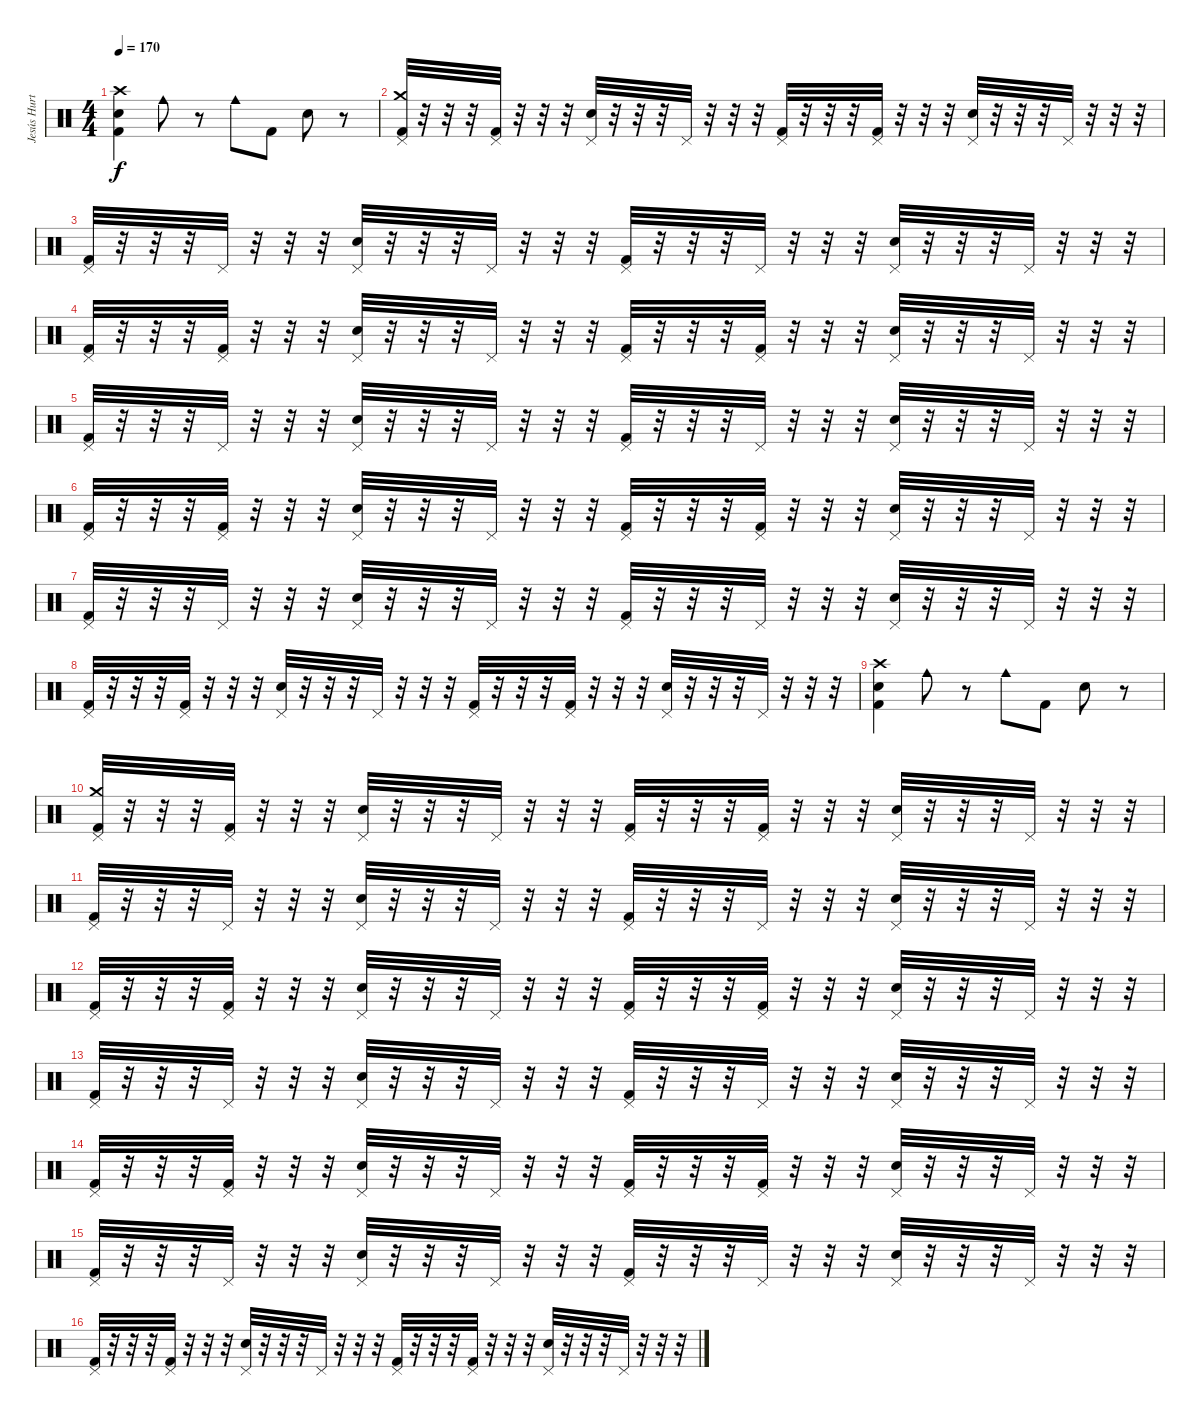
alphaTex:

\track ("Jesús Hurtado \"Jotache\"" "Jesús Hurt") {instrument percussion}
\staff {score}
\articulation defaults
\ts (4 4)
\tempo 170
\clef neutral
\ks c
("Electric Snare (hit)" "Kick (hit) 2" "Crash high (hit)").4{dy f} "Cowbell medium (hit)".8 r.8 "Cowbell medium (hit)".8 "Kick (hit) 2".8 "Electric Snare (hit)".8 r.8 |
("Kick (hit) 2" "Crash medium (hit)" "Pedal Hi-Hat (hit)").32 r.32 r.32 r.32 ("Kick (hit) 2" "Pedal Hi-Hat (hit)").32 r.32 r.32 r.32 ("Electric Snare (hit)" "Pedal Hi-Hat (hit)").32 r.32 r.32 r.32 "Pedal Hi-Hat (hit)".32 r.32 r.32 r.32 ("Kick (hit) 2" "Pedal Hi-Hat (hit)").32 r.32 r.32 r.32 ("Kick (hit) 2" "Pedal Hi-Hat (hit)").32 r.32 r.32 r.32 ("Electric Snare (hit)" "Pedal Hi-Hat (hit)").32 r.32 r.32 r.32 "Pedal Hi-Hat (hit)".32 r.32 r.32 r.32 |
("Kick (hit) 2" "Pedal Hi-Hat (hit)").32 r.32 r.32 r.32 "Pedal Hi-Hat (hit)".32 r.32 r.32 r.32 ("Electric Snare (hit)" "Pedal Hi-Hat (hit)").32 r.32 r.32 r.32 "Pedal Hi-Hat (hit)".32 r.32 r.32 r.32 ("Kick (hit) 2" "Pedal Hi-Hat (hit)").32 r.32 r.32 r.32 "Pedal Hi-Hat (hit)".32 r.32 r.32 r.32 ("Electric Snare (hit)" "Pedal Hi-Hat (hit)").32 r.32 r.32 r.32 "Pedal Hi-Hat (hit)".32 r.32 r.32 r.32 |
("Kick (hit) 2" "Pedal Hi-Hat (hit)").32 r.32 r.32 r.32 ("Kick (hit) 2" "Pedal Hi-Hat (hit)").32 r.32 r.32 r.32 ("Electric Snare (hit)" "Pedal Hi-Hat (hit)").32 r.32 r.32 r.32 "Pedal Hi-Hat (hit)".32 r.32 r.32 r.32 ("Kick (hit) 2" "Pedal Hi-Hat (hit)").32 r.32 r.32 r.32 ("Kick (hit) 2" "Pedal Hi-Hat (hit)").32 r.32 r.32 r.32 ("Electric Snare (hit)" "Pedal Hi-Hat (hit)").32 r.32 r.32 r.32 "Pedal Hi-Hat (hit)".32 r.32 r.32 r.32 |
("Kick (hit) 2" "Pedal Hi-Hat (hit)").32 r.32 r.32 r.32 "Pedal Hi-Hat (hit)".32 r.32 r.32 r.32 ("Electric Snare (hit)" "Pedal Hi-Hat (hit)").32 r.32 r.32 r.32 "Pedal Hi-Hat (hit)".32 r.32 r.32 r.32 ("Kick (hit) 2" "Pedal Hi-Hat (hit)").32 r.32 r.32 r.32 "Pedal Hi-Hat (hit)".32 r.32 r.32 r.32 ("Electric Snare (hit)" "Pedal Hi-Hat (hit)").32 r.32 r.32 r.32 "Pedal Hi-Hat (hit)".32 r.32 r.32 r.32 |
("Kick (hit) 2" "Pedal Hi-Hat (hit)").32 r.32 r.32 r.32 ("Kick (hit) 2" "Pedal Hi-Hat (hit)").32 r.32 r.32 r.32 ("Electric Snare (hit)" "Pedal Hi-Hat (hit)").32 r.32 r.32 r.32 "Pedal Hi-Hat (hit)".32 r.32 r.32 r.32 ("Kick (hit) 2" "Pedal Hi-Hat (hit)").32 r.32 r.32 r.32 ("Kick (hit) 2" "Pedal Hi-Hat (hit)").32 r.32 r.32 r.32 ("Electric Snare (hit)" "Pedal Hi-Hat (hit)").32 r.32 r.32 r.32 "Pedal Hi-Hat (hit)".32 r.32 r.32 r.32 |
("Kick (hit) 2" "Pedal Hi-Hat (hit)").32 r.32 r.32 r.32 "Pedal Hi-Hat (hit)".32 r.32 r.32 r.32 ("Electric Snare (hit)" "Pedal Hi-Hat (hit)").32 r.32 r.32 r.32 "Pedal Hi-Hat (hit)".32 r.32 r.32 r.32 ("Kick (hit) 2" "Pedal Hi-Hat (hit)").32 r.32 r.32 r.32 "Pedal Hi-Hat (hit)".32 r.32 r.32 r.32 ("Electric Snare (hit)" "Pedal Hi-Hat (hit)").32 r.32 r.32 r.32 "Pedal Hi-Hat (hit)".32 r.32 r.32 r.32 |
("Kick (hit) 2" "Pedal Hi-Hat (hit)").32 r.32 r.32 r.32 ("Kick (hit) 2" "Pedal Hi-Hat (hit)").32 r.32 r.32 r.32 ("Electric Snare (hit)" "Pedal Hi-Hat (hit)").32 r.32 r.32 r.32 "Pedal Hi-Hat (hit)".32 r.32 r.32 r.32 ("Kick (hit) 2" "Pedal Hi-Hat (hit)").32 r.32 r.32 r.32 ("Kick (hit) 2" "Pedal Hi-Hat (hit)").32 r.32 r.32 r.32 ("Electric Snare (hit)" "Pedal Hi-Hat (hit)").32 r.32 r.32 r.32 "Pedal Hi-Hat (hit)".32 r.32 r.32 r.32 |
("Electric Snare (hit)" "Kick (hit) 2" "Crash high (hit)").4 "Cowbell medium (hit)".8 r.8 "Cowbell medium (hit)".8 "Kick (hit) 2".8 "Electric Snare (hit)".8 r.8 |
("Kick (hit) 2" "Crash medium (hit)" "Pedal Hi-Hat (hit)").32 r.32 r.32 r.32 ("Kick (hit) 2" "Pedal Hi-Hat (hit)").32 r.32 r.32 r.32 ("Electric Snare (hit)" "Pedal Hi-Hat (hit)").32 r.32 r.32 r.32 "Pedal Hi-Hat (hit)".32 r.32 r.32 r.32 ("Kick (hit) 2" "Pedal Hi-Hat (hit)").32 r.32 r.32 r.32 ("Kick (hit) 2" "Pedal Hi-Hat (hit)").32 r.32 r.32 r.32 ("Electric Snare (hit)" "Pedal Hi-Hat (hit)").32 r.32 r.32 r.32 "Pedal Hi-Hat (hit)".32 r.32 r.32 r.32 |
("Kick (hit) 2" "Pedal Hi-Hat (hit)").32 r.32 r.32 r.32 "Pedal Hi-Hat (hit)".32 r.32 r.32 r.32 ("Electric Snare (hit)" "Pedal Hi-Hat (hit)").32 r.32 r.32 r.32 "Pedal Hi-Hat (hit)".32 r.32 r.32 r.32 ("Kick (hit) 2" "Pedal Hi-Hat (hit)").32 r.32 r.32 r.32 "Pedal Hi-Hat (hit)".32 r.32 r.32 r.32 ("Electric Snare (hit)" "Pedal Hi-Hat (hit)").32 r.32 r.32 r.32 "Pedal Hi-Hat (hit)".32 r.32 r.32 r.32 |
("Kick (hit) 2" "Pedal Hi-Hat (hit)").32 r.32 r.32 r.32 ("Kick (hit) 2" "Pedal Hi-Hat (hit)").32 r.32 r.32 r.32 ("Electric Snare (hit)" "Pedal Hi-Hat (hit)").32 r.32 r.32 r.32 "Pedal Hi-Hat (hit)".32 r.32 r.32 r.32 ("Kick (hit) 2" "Pedal Hi-Hat (hit)").32 r.32 r.32 r.32 ("Kick (hit) 2" "Pedal Hi-Hat (hit)").32 r.32 r.32 r.32 ("Electric Snare (hit)" "Pedal Hi-Hat (hit)").32 r.32 r.32 r.32 "Pedal Hi-Hat (hit)".32 r.32 r.32 r.32 |
("Kick (hit) 2" "Pedal Hi-Hat (hit)").32 r.32 r.32 r.32 "Pedal Hi-Hat (hit)".32 r.32 r.32 r.32 ("Electric Snare (hit)" "Pedal Hi-Hat (hit)").32 r.32 r.32 r.32 "Pedal Hi-Hat (hit)".32 r.32 r.32 r.32 ("Kick (hit) 2" "Pedal Hi-Hat (hit)").32 r.32 r.32 r.32 "Pedal Hi-Hat (hit)".32 r.32 r.32 r.32 ("Electric Snare (hit)" "Pedal Hi-Hat (hit)").32 r.32 r.32 r.32 "Pedal Hi-Hat (hit)".32 r.32 r.32 r.32 |
("Kick (hit) 2" "Pedal Hi-Hat (hit)").32 r.32 r.32 r.32 ("Kick (hit) 2" "Pedal Hi-Hat (hit)").32 r.32 r.32 r.32 ("Electric Snare (hit)" "Pedal Hi-Hat (hit)").32 r.32 r.32 r.32 "Pedal Hi-Hat (hit)".32 r.32 r.32 r.32 ("Kick (hit) 2" "Pedal Hi-Hat (hit)").32 r.32 r.32 r.32 ("Kick (hit) 2" "Pedal Hi-Hat (hit)").32 r.32 r.32 r.32 ("Electric Snare (hit)" "Pedal Hi-Hat (hit)").32 r.32 r.32 r.32 "Pedal Hi-Hat (hit)".32 r.32 r.32 r.32 |
("Kick (hit) 2" "Pedal Hi-Hat (hit)").32 r.32 r.32 r.32 "Pedal Hi-Hat (hit)".32 r.32 r.32 r.32 ("Electric Snare (hit)" "Pedal Hi-Hat (hit)").32 r.32 r.32 r.32 "Pedal Hi-Hat (hit)".32 r.32 r.32 r.32 ("Kick (hit) 2" "Pedal Hi-Hat (hit)").32 r.32 r.32 r.32 "Pedal Hi-Hat (hit)".32 r.32 r.32 r.32 ("Electric Snare (hit)" "Pedal Hi-Hat (hit)").32 r.32 r.32 r.32 "Pedal Hi-Hat (hit)".32 r.32 r.32 r.32 |
("Kick (hit) 2" "Pedal Hi-Hat (hit)").32 r.32 r.32 r.32 ("Kick (hit) 2" "Pedal Hi-Hat (hit)").32 r.32 r.32 r.32 ("Electric Snare (hit)" "Pedal Hi-Hat (hit)").32 r.32 r.32 r.32 "Pedal Hi-Hat (hit)".32 r.32 r.32 r.32 ("Kick (hit) 2" "Pedal Hi-Hat (hit)").32 r.32 r.32 r.32 ("Kick (hit) 2" "Pedal Hi-Hat (hit)").32 r.32 r.32 r.32 ("Electric Snare (hit)" "Pedal Hi-Hat (hit)").32 r.32 r.32 r.32 "Pedal Hi-Hat (hit)".32 r.32 r.32 r.32
